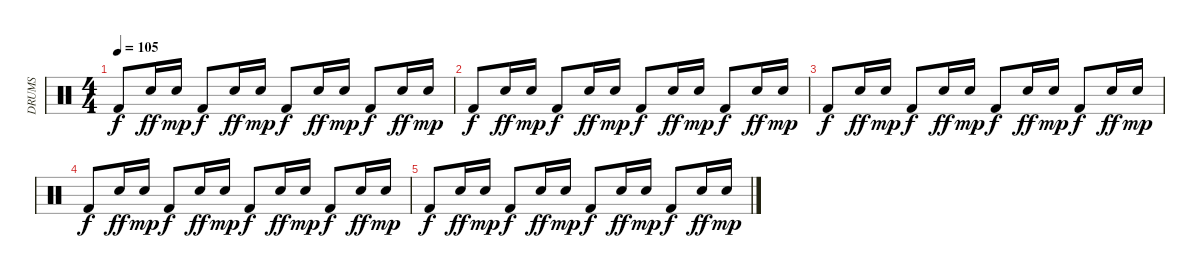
\track ("DRUMS" "DRUMS") {instrument percussion}
\staff {score}
\articulation defaults
\ts (4 4)
\tempo 105
\clef neutral
\ks c "Kick (hit) 2".8{dy f} "Snare (hit) 2".16{dy ff} "Snare (hit) 2".16{dy mp} "Kick (hit) 2".8{dy f} "Snare (hit) 2".16{dy ff} "Snare (hit) 2".16{dy mp} "Kick (hit) 2".8{dy f} "Snare (hit) 2".16{dy ff} "Snare (hit) 2".16{dy mp} "Kick (hit) 2".8{dy f} "Snare (hit) 2".16{dy ff} "Snare (hit) 2".16{dy mp}
|
"Kick (hit) 2".8{dy f} "Snare (hit) 2".16{dy ff} "Snare (hit) 2".16{dy mp} "Kick (hit) 2".8{dy f} "Snare (hit) 2".16{dy ff} "Snare (hit) 2".16{dy mp} "Kick (hit) 2".8{dy f} "Snare (hit) 2".16{dy ff} "Snare (hit) 2".16{dy mp} "Kick (hit) 2".8{dy f} "Snare (hit) 2".16{dy ff} "Snare (hit) 2".16{dy mp} |
"Kick (hit) 2".8{dy f} "Snare (hit) 2".16{dy ff} "Snare (hit) 2".16{dy mp} "Kick (hit) 2".8{dy f} "Snare (hit) 2".16{dy ff} "Snare (hit) 2".16{dy mp} "Kick (hit) 2".8{dy f} "Snare (hit) 2".16{dy ff} "Snare (hit) 2".16{dy mp} "Kick (hit) 2".8{dy f} "Snare (hit) 2".16{dy ff} "Snare (hit) 2".16{dy mp} |
"Kick (hit) 2".8{dy f} "Snare (hit) 2".16{dy ff} "Snare (hit) 2".16{dy mp} "Kick (hit) 2".8{dy f} "Snare (hit) 2".16{dy ff} "Snare (hit) 2".16{dy mp} "Kick (hit) 2".8{dy f} "Snare (hit) 2".16{dy ff} "Snare (hit) 2".16{dy mp} "Kick (hit) 2".8{dy f} "Snare (hit) 2".16{dy ff} "Snare (hit) 2".16{dy mp} |
"Kick (hit) 2".8{dy f} "Snare (hit) 2".16{dy ff} "Snare (hit) 2".16{dy mp} "Kick (hit) 2".8{dy f} "Snare (hit) 2".16{dy ff} "Snare (hit) 2".16{dy mp} "Kick (hit) 2".8{dy f} "Snare (hit) 2".16{dy ff} "Snare (hit) 2".16{dy mp} "Kick (hit) 2".8{dy f} "Snare (hit) 2".16{dy ff} "Snare (hit) 2".16{dy mp}
